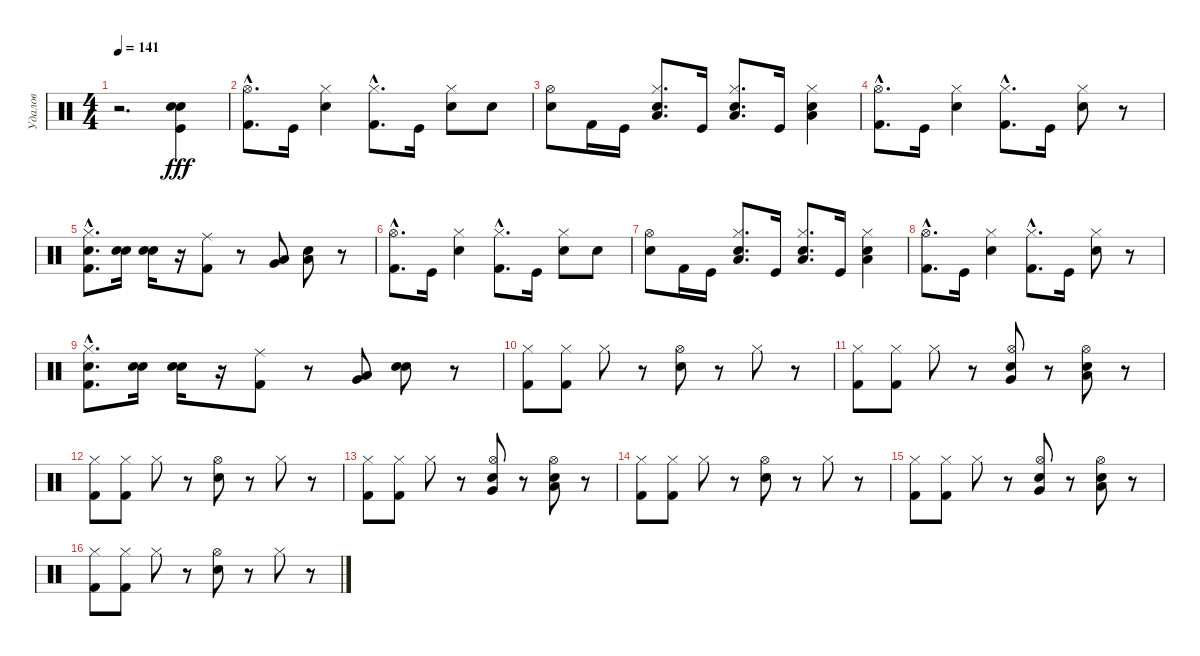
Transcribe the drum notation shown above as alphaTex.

\track ("Удалов" "Удалов") {instrument percussion}
\staff {score}
\articulation defaults
\ts (4 4)
\tempo 141
\clef neutral
\ks c
r.2{d dy fff} ("Electric Snare (hit)" "Kick (hit)" "Snare (hit) 2").4 |
("Hi-Hat (open)"{hac} "Kick (hit) 2"{hac}).8{d} "Kick (hit)".16 ("Hi-Hat (closed)" "Snare (hit) 2").4 ("Hi-Hat (closed)"{hac} "Kick (hit) 2"{hac}).8{d} "Kick (hit)".16 ("Hi-Hat (closed)" "Snare (hit) 2").8 "Snare (hit) 2".8 |
("Hi-Hat (open)" "Snare (hit) 2").8 "Kick (hit) 2".16 "Kick (hit)".16 ("Hi-Hat (closed)" "Low Tom (hit)" "Snare (hit) 2").8{d} "Kick (hit)".16 ("Hi-Hat (closed)" "Low Tom (hit)" "Snare (hit) 2").8{d} "Kick (hit)".16 ("Hi-Hat (closed)" "Low Tom (hit)" "Snare (hit) 2").4 |
("Hi-Hat (open)"{hac} "Kick (hit) 2"{hac}).8{d} "Kick (hit)".16 ("Hi-Hat (closed)" "Snare (hit) 2").4 ("Hi-Hat (closed)"{hac} "Kick (hit) 2"{hac}).8{d} "Kick (hit)".16 ("Hi-Hat (closed)" "Snare (hit) 2").8 r.8 |
("Hi-Hat (closed)" "Snare (hit) 2"{hac} "Kick (hit) 2").8{d} ("Electric Snare (hit)" "Snare (hit) 2").16 ("Snare (hit) 2" "Electric Snare (hit)").16 r.16 ("Ride (middle)" "Kick (hit) 2").8 r.8 ("Very Low Tom (hit)" "Low Tom (hit)").8 ("Low Tom (hit)" "Snare (hit) 2").8 r.8 |
("Hi-Hat (open)"{hac} "Kick (hit) 2"{hac}).8{d} "Kick (hit)".16 ("Hi-Hat (closed)" "Snare (hit) 2").4 ("Hi-Hat (closed)"{hac} "Kick (hit) 2"{hac}).8{d} "Kick (hit)".16 ("Hi-Hat (closed)" "Snare (hit) 2").8 "Snare (hit) 2".8 |
("Hi-Hat (open)" "Snare (hit) 2").8 "Kick (hit) 2".16 "Kick (hit)".16 ("Hi-Hat (closed)" "Low Tom (hit)" "Snare (hit) 2").8{d} "Kick (hit)".16 ("Hi-Hat (closed)" "Low Tom (hit)" "Snare (hit) 2").8{d} "Kick (hit)".16 ("Hi-Hat (closed)" "Low Tom (hit)" "Snare (hit) 2").4 |
("Hi-Hat (open)"{hac} "Kick (hit) 2"{hac}).8{d} "Kick (hit)".16 ("Hi-Hat (closed)" "Snare (hit) 2").4 ("Hi-Hat (closed)"{hac} "Kick (hit) 2"{hac}).8{d} "Kick (hit)".16 ("Hi-Hat (closed)" "Snare (hit) 2").8 r.8 |
("Hi-Hat (closed)" "Snare (hit) 2"{hac} "Kick (hit) 2").8{d} ("Electric Snare (hit)" "Snare (hit) 2").16 ("Snare (hit) 2" "Electric Snare (hit)").16 r.16 ("Ride (middle)" "Kick (hit) 2").8 r.8 ("Very Low Tom (hit)" "Low Tom (hit)").8 ("Electric Snare (hit)" "Snare (hit) 2").8 r.8 |
("Hi-Hat (closed)" "Kick (hit) 2").8 ("Hi-Hat (closed)" "Kick (hit) 2").8 "Hi-Hat (closed)".8 r.8 ("Hi-Hat (open)" "Snare (hit) 2").8 r.8 "Hi-Hat (closed)".8 r.8 |
("Hi-Hat (closed)" "Kick (hit) 2").8 ("Hi-Hat (closed)" "Kick (hit) 2").8 "Hi-Hat (closed)".8 r.8 ("Very Low Tom (hit)" "Hi-Hat (open)" "Snare (hit) 2").8 r.8 ("Low Tom (hit)" "Snare (hit) 2" "Hi-Hat (open)").8 r.8 |
("Hi-Hat (closed)" "Kick (hit) 2").8 ("Hi-Hat (closed)" "Kick (hit) 2").8 "Hi-Hat (closed)".8 r.8 ("Hi-Hat (open)" "Snare (hit) 2").8 r.8 "Hi-Hat (closed)".8 r.8 |
("Hi-Hat (closed)" "Kick (hit) 2").8 ("Hi-Hat (closed)" "Kick (hit) 2").8 "Hi-Hat (closed)".8 r.8 ("Very Low Tom (hit)" "Hi-Hat (open)" "Snare (hit) 2").8 r.8 ("Low Tom (hit)" "Snare (hit) 2" "Hi-Hat (open)").8 r.8 |
("Hi-Hat (closed)" "Kick (hit) 2").8 ("Hi-Hat (closed)" "Kick (hit) 2").8 "Hi-Hat (closed)".8 r.8 ("Hi-Hat (open)" "Snare (hit) 2").8 r.8 "Hi-Hat (closed)".8 r.8 |
("Hi-Hat (closed)" "Kick (hit) 2").8 ("Hi-Hat (closed)" "Kick (hit) 2").8 "Hi-Hat (closed)".8 r.8 ("Very Low Tom (hit)" "Hi-Hat (open)" "Snare (hit) 2").8 r.8 ("Low Tom (hit)" "Snare (hit) 2" "Hi-Hat (open)").8 r.8 |
("Hi-Hat (closed)" "Kick (hit) 2").8 ("Hi-Hat (closed)" "Kick (hit) 2").8 "Hi-Hat (closed)".8 r.8 ("Hi-Hat (open)" "Snare (hit) 2").8 r.8 "Hi-Hat (closed)".8 r.8
